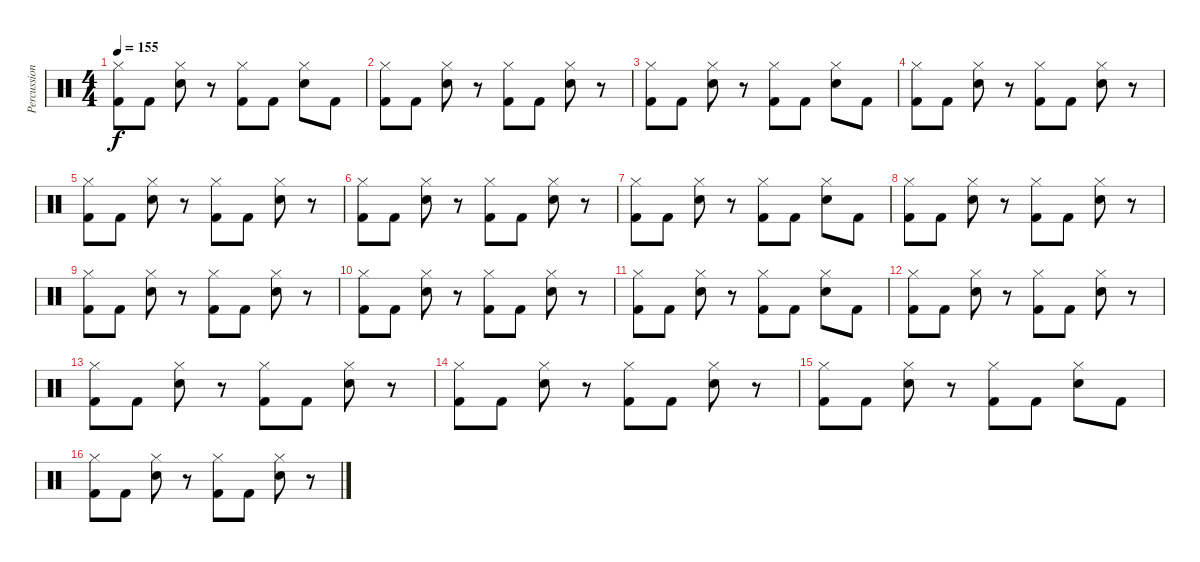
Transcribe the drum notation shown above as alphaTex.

\track ("Percussions" "Percussion") {mute instrument percussion}
\staff {score}
\articulation defaults
\ts (4 4)
\tempo 155
\clef neutral
\ks c
("Hi-Hat (closed)" "Kick (hit) 2").8{dy f} "Kick (hit) 2".8 ("Hi-Hat (closed)" "Electric Snare (hit)").8 r.8 ("Hi-Hat (closed)" "Kick (hit) 2").8 "Kick (hit) 2".8 ("Hi-Hat (closed)" "Electric Snare (hit)").8 "Kick (hit) 2".8 |
("Hi-Hat (closed)" "Kick (hit) 2").8 "Kick (hit) 2".8 ("Hi-Hat (closed)" "Electric Snare (hit)").8 r.8 ("Hi-Hat (closed)" "Kick (hit) 2").8 "Kick (hit) 2".8 ("Hi-Hat (closed)" "Electric Snare (hit)").8 r.8 |
("Hi-Hat (closed)" "Kick (hit) 2").8 "Kick (hit) 2".8 ("Hi-Hat (closed)" "Electric Snare (hit)").8 r.8 ("Hi-Hat (closed)" "Kick (hit) 2").8 "Kick (hit) 2".8 ("Hi-Hat (closed)" "Electric Snare (hit)").8 "Kick (hit) 2".8 |
("Hi-Hat (closed)" "Kick (hit) 2").8 "Kick (hit) 2".8 ("Hi-Hat (closed)" "Electric Snare (hit)").8 r.8 ("Hi-Hat (closed)" "Kick (hit) 2").8 "Kick (hit) 2".8 ("Hi-Hat (closed)" "Electric Snare (hit)").8 r.8 |
("Hi-Hat (closed)" "Kick (hit) 2").8 "Kick (hit) 2".8 ("Hi-Hat (closed)" "Electric Snare (hit)").8 r.8 ("Hi-Hat (closed)" "Kick (hit) 2").8 "Kick (hit) 2".8 ("Hi-Hat (closed)" "Electric Snare (hit)").8 r.8 |
("Hi-Hat (closed)" "Kick (hit) 2").8 "Kick (hit) 2".8 ("Hi-Hat (closed)" "Electric Snare (hit)").8 r.8 ("Hi-Hat (closed)" "Kick (hit) 2").8 "Kick (hit) 2".8 ("Hi-Hat (closed)" "Electric Snare (hit)").8 r.8 |
("Hi-Hat (closed)" "Kick (hit) 2").8 "Kick (hit) 2".8 ("Hi-Hat (closed)" "Electric Snare (hit)").8 r.8 ("Hi-Hat (closed)" "Kick (hit) 2").8 "Kick (hit) 2".8 ("Hi-Hat (closed)" "Electric Snare (hit)").8 "Kick (hit) 2".8 |
("Hi-Hat (closed)" "Kick (hit) 2").8 "Kick (hit) 2".8 ("Hi-Hat (closed)" "Electric Snare (hit)").8 r.8 ("Hi-Hat (closed)" "Kick (hit) 2").8 "Kick (hit) 2".8 ("Hi-Hat (closed)" "Electric Snare (hit)").8 r.8 |
("Hi-Hat (closed)" "Kick (hit) 2").8 "Kick (hit) 2".8 ("Hi-Hat (closed)" "Electric Snare (hit)").8 r.8 ("Hi-Hat (closed)" "Kick (hit) 2").8 "Kick (hit) 2".8 ("Hi-Hat (closed)" "Electric Snare (hit)").8 r.8 |
("Hi-Hat (closed)" "Kick (hit) 2").8 "Kick (hit) 2".8 ("Hi-Hat (closed)" "Electric Snare (hit)").8 r.8 ("Hi-Hat (closed)" "Kick (hit) 2").8 "Kick (hit) 2".8 ("Hi-Hat (closed)" "Electric Snare (hit)").8 r.8 |
("Hi-Hat (closed)" "Kick (hit) 2").8 "Kick (hit) 2".8 ("Hi-Hat (closed)" "Electric Snare (hit)").8 r.8 ("Hi-Hat (closed)" "Kick (hit) 2").8 "Kick (hit) 2".8 ("Hi-Hat (closed)" "Electric Snare (hit)").8 "Kick (hit) 2".8 |
("Hi-Hat (closed)" "Kick (hit) 2").8 "Kick (hit) 2".8 ("Hi-Hat (closed)" "Electric Snare (hit)").8 r.8 ("Hi-Hat (closed)" "Kick (hit) 2").8 "Kick (hit) 2".8 ("Hi-Hat (closed)" "Electric Snare (hit)").8 r.8 |
("Hi-Hat (closed)" "Kick (hit) 2").8 "Kick (hit) 2".8 ("Hi-Hat (closed)" "Electric Snare (hit)").8 r.8 ("Hi-Hat (closed)" "Kick (hit) 2").8 "Kick (hit) 2".8 ("Hi-Hat (closed)" "Electric Snare (hit)").8 r.8 |
("Hi-Hat (closed)" "Kick (hit) 2").8 "Kick (hit) 2".8 ("Hi-Hat (closed)" "Electric Snare (hit)").8 r.8 ("Hi-Hat (closed)" "Kick (hit) 2").8 "Kick (hit) 2".8 ("Hi-Hat (closed)" "Electric Snare (hit)").8 r.8 |
("Hi-Hat (closed)" "Kick (hit) 2").8 "Kick (hit) 2".8 ("Hi-Hat (closed)" "Electric Snare (hit)").8 r.8 ("Hi-Hat (closed)" "Kick (hit) 2").8 "Kick (hit) 2".8 ("Hi-Hat (closed)" "Electric Snare (hit)").8 "Kick (hit) 2".8 |
("Hi-Hat (closed)" "Kick (hit) 2").8 "Kick (hit) 2".8 ("Hi-Hat (closed)" "Electric Snare (hit)").8 r.8 ("Hi-Hat (closed)" "Kick (hit) 2").8 "Kick (hit) 2".8 ("Hi-Hat (closed)" "Electric Snare (hit)").8 r.8
